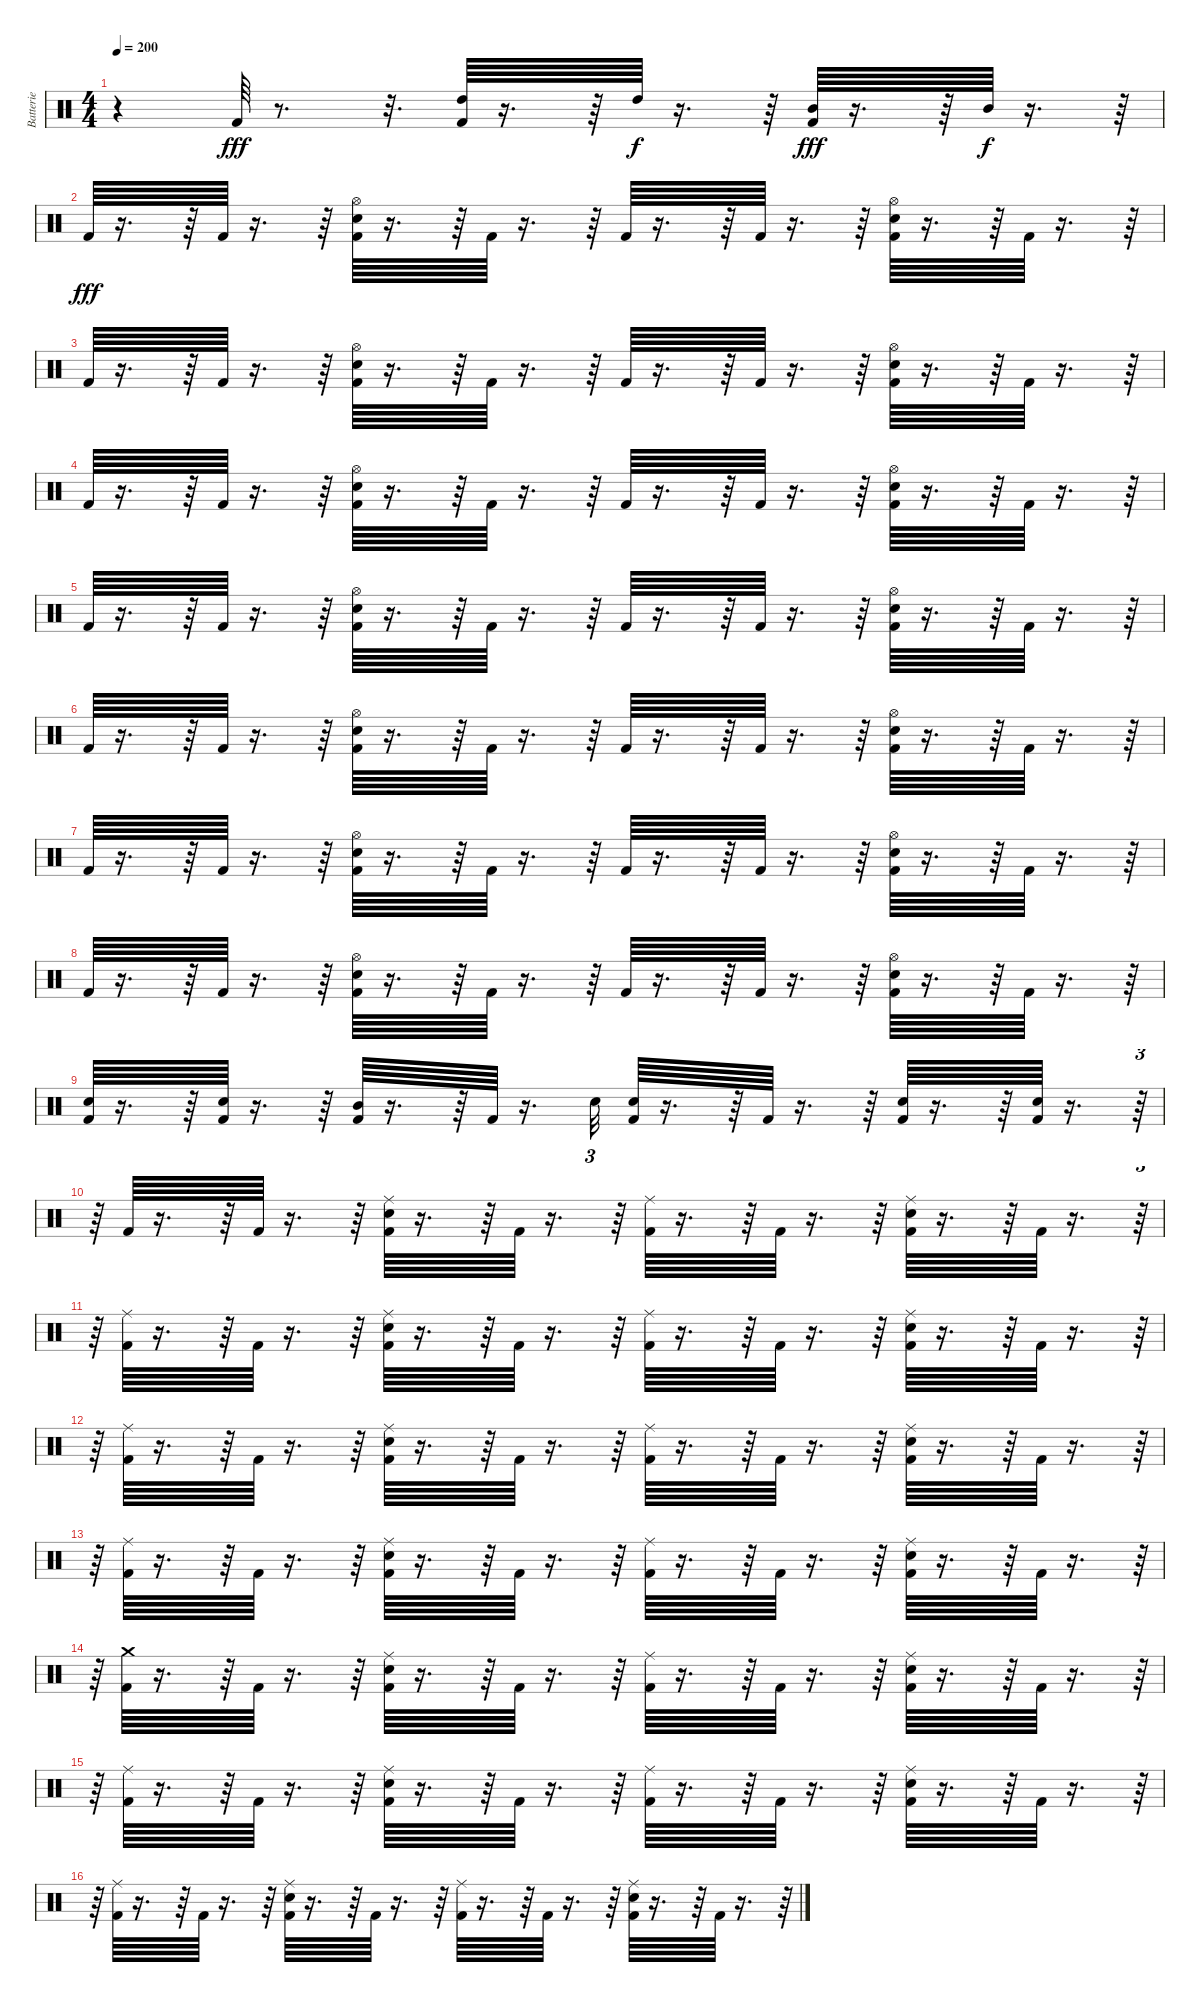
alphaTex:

\track ("Batterie" "Batterie") {instrument percussion}
\staff {score}
\articulation defaults
\ts (4 4)
\tempo 200
\clef neutral
\ks c
r.4{dy fff} "Kick (hit) 2".64 r.8{d} r.32{d} ("Kick (hit) 2" "High Tom (hit)").64 r.16{d} r.64 "High Tom (hit)".64{dy f} r.16{d} r.64 ("Kick (hit) 2" "Mid Tom (hit)").64{dy fff} r.16{d} r.64 "Mid Tom (hit)".64{dy f} r.16{d} r.64 |
"Kick (hit) 2".64{dy fff} r.16{d} r.64 "Kick (hit) 2".64 r.16{d} r.64 ("Kick (hit) 2" "Snare (hit) 2" "Hi-Hat (open)").64 r.16{d} r.64 "Kick (hit) 2".64 r.16{d} r.64 "Kick (hit) 2".64 r.16{d} r.64 "Kick (hit) 2".64 r.16{d} r.64 ("Kick (hit) 2" "Snare (hit) 2" "Hi-Hat (open)").64 r.16{d} r.64 "Kick (hit) 2".64 r.16{d} r.64 |
"Kick (hit) 2".64 r.16{d} r.64 "Kick (hit) 2".64 r.16{d} r.64 ("Kick (hit) 2" "Snare (hit) 2" "Hi-Hat (open)").64 r.16{d} r.64 "Kick (hit) 2".64 r.16{d} r.64 "Kick (hit) 2".64 r.16{d} r.64 "Kick (hit) 2".64 r.16{d} r.64 ("Kick (hit) 2" "Snare (hit) 2" "Hi-Hat (open)").64 r.16{d} r.64 "Kick (hit) 2".64 r.16{d} r.64 |
"Kick (hit) 2".64 r.16{d} r.64 "Kick (hit) 2".64 r.16{d} r.64 ("Kick (hit) 2" "Snare (hit) 2" "Hi-Hat (open)").64 r.16{d} r.64 "Kick (hit) 2".64 r.16{d} r.64 "Kick (hit) 2".64 r.16{d} r.64 "Kick (hit) 2".64 r.16{d} r.64 ("Kick (hit) 2" "Snare (hit) 2" "Hi-Hat (open)").64 r.16{d} r.64 "Kick (hit) 2".64 r.16{d} r.64 |
"Kick (hit) 2".64 r.16{d} r.64 "Kick (hit) 2".64 r.16{d} r.64 ("Kick (hit) 2" "Snare (hit) 2" "Hi-Hat (open)").64 r.16{d} r.64 "Kick (hit) 2".64 r.16{d} r.64 "Kick (hit) 2".64 r.16{d} r.64 "Kick (hit) 2".64 r.16{d} r.64 ("Kick (hit) 2" "Snare (hit) 2" "Hi-Hat (open)").64 r.16{d} r.64 "Kick (hit) 2".64 r.16{d} r.64 |
"Kick (hit) 2".64 r.16{d} r.64 "Kick (hit) 2".64 r.16{d} r.64 ("Kick (hit) 2" "Snare (hit) 2" "Hi-Hat (open)").64 r.16{d} r.64 "Kick (hit) 2".64 r.16{d} r.64 "Kick (hit) 2".64 r.16{d} r.64 "Kick (hit) 2".64 r.16{d} r.64 ("Kick (hit) 2" "Snare (hit) 2" "Hi-Hat (open)").64 r.16{d} r.64 "Kick (hit) 2".64 r.16{d} r.64 |
"Kick (hit) 2".64 r.16{d} r.64 "Kick (hit) 2".64 r.16{d} r.64 ("Kick (hit) 2" "Snare (hit) 2" "Hi-Hat (open)").64 r.16{d} r.64 "Kick (hit) 2".64 r.16{d} r.64 "Kick (hit) 2".64 r.16{d} r.64 "Kick (hit) 2".64 r.16{d} r.64 ("Kick (hit) 2" "Snare (hit) 2" "Hi-Hat (open)").64 r.16{d} r.64 "Kick (hit) 2".64 r.16{d} r.64 |
"Kick (hit) 2".64 r.16{d} r.64 "Kick (hit) 2".64 r.16{d} r.64 ("Kick (hit) 2" "Snare (hit) 2" "Hi-Hat (open)").64 r.16{d} r.64 "Kick (hit) 2".64 r.16{d} r.64 "Kick (hit) 2".64 r.16{d} r.64 "Kick (hit) 2".64 r.16{d} r.64 ("Kick (hit) 2" "Snare (hit) 2" "Hi-Hat (open)").64 r.16{d} r.64 "Kick (hit) 2".64 r.16{d} r.64 |
("Kick (hit) 2" "Snare (hit) 2").64 r.16{d} r.64 ("Kick (hit) 2" "Snare (hit) 2").64 r.16{d} r.64 ("Kick (hit) 2" "Mid Tom (hit)").64 r.16{d} r.64 "Kick (hit) 2".64 r.16{d} "Snare (hit) 2".32{tu (3 2)} ("Kick (hit) 2" "Snare (hit) 2").64 r.16{d} r.64 "Kick (hit) 2".64 r.16{d} r.64 ("Kick (hit) 2" "Snare (hit) 2").64 r.16{d} r.64 ("Kick (hit) 2" "Snare (hit) 2").64 r.16{d} r.64{tu (3 2)} |
r.64 "Kick (hit) 2".64 r.16{d} r.64 "Kick (hit) 2".64 r.16{d} r.64 ("Kick (hit) 2" "Snare (hit) 2" "Ride (middle)").64 r.16{d} r.64 "Kick (hit) 2".64 r.16{d} r.64 ("Kick (hit) 2" "Ride (middle)").64 r.16{d} r.64 "Kick (hit) 2".64 r.16{d} r.64 ("Kick (hit) 2" "Snare (hit) 2" "Ride (middle)").64 r.16{d} r.64 "Kick (hit) 2".64 r.16{d} r.64{tu (3 2)} |
r.64 ("Kick (hit) 2" "Ride (middle)").64 r.16{d} r.64 "Kick (hit) 2".64 r.16{d} r.64 ("Kick (hit) 2" "Snare (hit) 2" "Ride (middle)").64 r.16{d} r.64 "Kick (hit) 2".64 r.16{d} r.64 ("Kick (hit) 2" "Ride (middle)").64 r.16{d} r.64 "Kick (hit) 2".64 r.16{d} r.64 ("Kick (hit) 2" "Snare (hit) 2" "Ride (middle)").64 r.16{d} r.64 "Kick (hit) 2".64 r.16{d} r.64{tu (3 2)} |
r.64 ("Kick (hit) 2" "Ride (middle)").64 r.16{d} r.64 "Kick (hit) 2".64 r.16{d} r.64 ("Kick (hit) 2" "Snare (hit) 2" "Ride (middle)").64 r.16{d} r.64 "Kick (hit) 2".64 r.16{d} r.64 ("Kick (hit) 2" "Ride (middle)").64 r.16{d} r.64 "Kick (hit) 2".64 r.16{d} r.64 ("Kick (hit) 2" "Snare (hit) 2" "Ride (middle)").64 r.16{d} r.64 "Kick (hit) 2".64 r.16{d} r.64{tu (3 2)} |
r.64 ("Kick (hit) 2" "Ride (middle)").64 r.16{d} r.64 "Kick (hit) 2".64 r.16{d} r.64 ("Kick (hit) 2" "Snare (hit) 2" "Ride (middle)").64 r.16{d} r.64 "Kick (hit) 2".64 r.16{d} r.64 ("Kick (hit) 2" "Ride (middle)").64 r.16{d} r.64 "Kick (hit) 2".64 r.16{d} r.64 ("Kick (hit) 2" "Snare (hit) 2" "Ride (middle)").64 r.16{d} r.64 "Kick (hit) 2".64 r.16{d} r.64{tu (3 2)} |
r.64 ("Kick (hit) 2" "Crash medium (hit)").64 r.16{d} r.64 "Kick (hit) 2".64 r.16{d} r.64 ("Kick (hit) 2" "Snare (hit) 2" "Ride (middle)").64 r.16{d} r.64 "Kick (hit) 2".64 r.16{d} r.64 ("Kick (hit) 2" "Ride (middle)").64 r.16{d} r.64 "Kick (hit) 2".64 r.16{d} r.64 ("Kick (hit) 2" "Snare (hit) 2" "Ride (middle)").64 r.16{d} r.64 "Kick (hit) 2".64 r.16{d} r.64{tu (3 2)} |
r.64 ("Kick (hit) 2" "Ride (middle)").64 r.16{d} r.64 "Kick (hit) 2".64 r.16{d} r.64 ("Kick (hit) 2" "Snare (hit) 2" "Ride (middle)").64 r.16{d} r.64 "Kick (hit) 2".64 r.16{d} r.64 ("Kick (hit) 2" "Ride (middle)").64 r.16{d} r.64 "Kick (hit) 2".64 r.16{d} r.64 ("Kick (hit) 2" "Snare (hit) 2" "Ride (middle)").64 r.16{d} r.64 "Kick (hit) 2".64 r.16{d} r.64{tu (3 2)} |
r.64 ("Kick (hit) 2" "Ride (middle)").64 r.16{d} r.64 "Kick (hit) 2".64 r.16{d} r.64 ("Kick (hit) 2" "Snare (hit) 2" "Ride (middle)").64 r.16{d} r.64 "Kick (hit) 2".64 r.16{d} r.64 ("Kick (hit) 2" "Ride (middle)").64 r.16{d} r.64 "Kick (hit) 2".64 r.16{d} r.64 ("Kick (hit) 2" "Snare (hit) 2" "Ride (middle)").64 r.16{d} r.64 "Kick (hit) 2".64 r.16{d} r.64{tu (3 2)}
